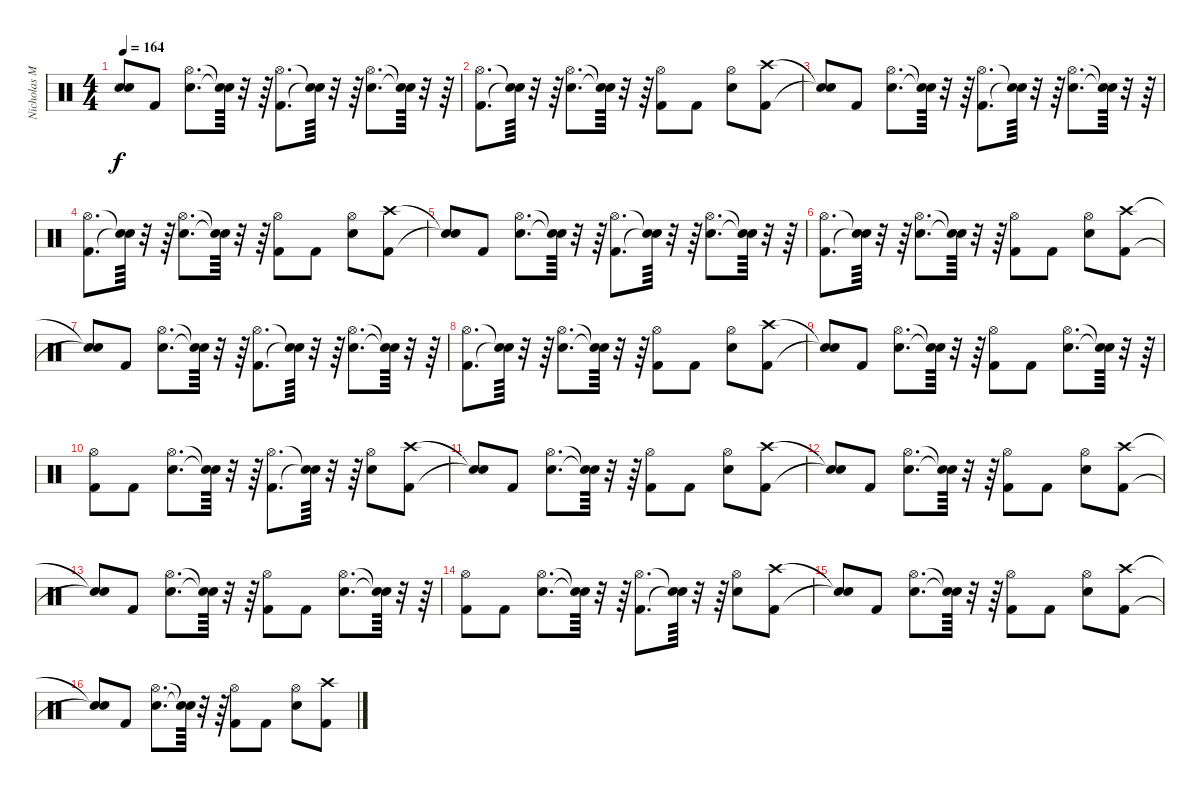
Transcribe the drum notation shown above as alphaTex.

\track ("Nicholas McBrain (Drums)" "Nicholas M") {instrument percussion}
\staff {score}
\articulation defaults
\ts (4 4)
\tempo 164
\clef neutral
\ks c
("Snare (hit)"{t} "Snare (hit)"{t}).8{dy f} "Kick (hit) 2".8 ("Snare (hit) 2" "Hi-Hat (open)").8{d} ("Snare (hit)"{t} "Snare (hit)"{t}).64 r.32 r.64 ("Kick (hit) 2" "Hi-Hat (open)").8{d} ("Snare (hit)"{t} "Snare (hit)"{t}).64 r.32 r.64 ("Snare (hit) 2" "Hi-Hat (open)").8{d} ("Snare (hit)"{t} "Snare (hit)"{t}).64 r.32 r.64 |
("Kick (hit) 2" "Hi-Hat (open)").8{d} ("Snare (hit)"{t} "Snare (hit)"{t}).64 r.32 r.64 ("Snare (hit) 2" "Hi-Hat (open)").8{d} ("Snare (hit)"{t} "Snare (hit)"{t}).64 r.32 r.64 ("Kick (hit) 2" "Hi-Hat (open)").8 "Kick (hit) 2".8 ("Snare (hit) 2" "Hi-Hat (open)").8 ("Kick (hit) 2" "Crash high (hit)").8 |
("Snare (hit)"{t} "Snare (hit)"{t}).8 "Kick (hit) 2".8 ("Snare (hit) 2" "Hi-Hat (open)").8{d} ("Snare (hit)"{t} "Snare (hit)"{t}).64 r.32 r.64 ("Kick (hit) 2" "Hi-Hat (open)").8{d} ("Snare (hit)"{t} "Snare (hit)"{t}).64 r.32 r.64 ("Snare (hit) 2" "Hi-Hat (open)").8{d} ("Snare (hit)"{t} "Snare (hit)"{t}).64 r.32 r.64 |
("Kick (hit) 2" "Hi-Hat (open)").8{d} ("Snare (hit)"{t} "Snare (hit)"{t}).64 r.32 r.64 ("Snare (hit) 2" "Hi-Hat (open)").8{d} ("Snare (hit)"{t} "Snare (hit)"{t}).64 r.32 r.64 ("Kick (hit) 2" "Hi-Hat (open)").8 "Kick (hit) 2".8 ("Snare (hit) 2" "Hi-Hat (open)").8 ("Kick (hit) 2" "Crash high (hit)").8 |
("Snare (hit)"{t} "Snare (hit)"{t}).8 "Kick (hit) 2".8 ("Snare (hit) 2" "Hi-Hat (open)").8{d} ("Snare (hit)"{t} "Snare (hit)"{t}).64 r.32 r.64 ("Kick (hit) 2" "Hi-Hat (open)").8{d} ("Snare (hit)"{t} "Snare (hit)"{t}).64 r.32 r.64 ("Snare (hit) 2" "Hi-Hat (open)").8{d} ("Snare (hit)"{t} "Snare (hit)"{t}).64 r.32 r.64 |
("Kick (hit) 2" "Hi-Hat (open)").8{d} ("Snare (hit)"{t} "Snare (hit)"{t}).64 r.32 r.64 ("Snare (hit) 2" "Hi-Hat (open)").8{d} ("Snare (hit)"{t} "Snare (hit)"{t}).64 r.32 r.64 ("Kick (hit) 2" "Hi-Hat (open)").8 "Kick (hit) 2".8 ("Snare (hit) 2" "Hi-Hat (open)").8 ("Kick (hit) 2" "Crash high (hit)").8 |
("Snare (hit)"{t} "Snare (hit)"{t}).8 "Kick (hit) 2".8 ("Snare (hit) 2" "Hi-Hat (open)").8{d} ("Snare (hit)"{t} "Snare (hit)"{t}).64 r.32 r.64 ("Kick (hit) 2" "Hi-Hat (open)").8{d} ("Snare (hit)"{t} "Snare (hit)"{t}).64 r.32 r.64 ("Snare (hit) 2" "Hi-Hat (open)").8{d} ("Snare (hit)"{t} "Snare (hit)"{t}).64 r.32 r.64 |
("Kick (hit) 2" "Hi-Hat (open)").8{d} ("Snare (hit)"{t} "Snare (hit)"{t}).64 r.32 r.64 ("Snare (hit) 2" "Hi-Hat (open)").8{d} ("Snare (hit)"{t} "Snare (hit)"{t}).64 r.32 r.64 ("Kick (hit) 2" "Hi-Hat (open)").8 "Kick (hit) 2".8 ("Snare (hit) 2" "Hi-Hat (open)").8 ("Kick (hit) 2" "Crash high (hit)").8 |
("Snare (hit)"{t} "Snare (hit)"{t}).8 "Kick (hit) 2".8 ("Snare (hit) 2" "Hi-Hat (open)").8{d} ("Snare (hit)"{t} "Snare (hit)"{t}).64 r.32 r.64 ("Kick (hit) 2" "Hi-Hat (open)").8 "Kick (hit) 2".8 ("Snare (hit) 2" "Hi-Hat (open)").8{d} ("Snare (hit)"{t} "Snare (hit)"{t}).64 r.32 r.64 |
("Kick (hit) 2" "Hi-Hat (open)").8 "Kick (hit) 2".8 ("Snare (hit) 2" "Hi-Hat (open)").8{d} ("Snare (hit)"{t} "Snare (hit)"{t}).64 r.32 r.64 ("Kick (hit) 2" "Hi-Hat (open)").8{d} ("Snare (hit)"{t} "Snare (hit)"{t}).64 r.32 r.64 ("Snare (hit) 2" "Hi-Hat (open)").8 ("Kick (hit) 2" "Crash high (hit)").8 |
("Snare (hit)"{t} "Snare (hit)"{t}).8 "Kick (hit) 2".8 ("Snare (hit) 2" "Hi-Hat (open)").8{d} ("Snare (hit)"{t} "Snare (hit)"{t}).64 r.32 r.64 ("Kick (hit) 2" "Hi-Hat (open)").8 "Kick (hit) 2".8 ("Snare (hit) 2" "Hi-Hat (open)").8 ("Kick (hit) 2" "Crash high (hit)").8 |
("Snare (hit)"{t} "Snare (hit)"{t}).8 "Kick (hit) 2".8 ("Snare (hit) 2" "Hi-Hat (open)").8{d} ("Snare (hit)"{t} "Snare (hit)"{t}).64 r.32 r.64 ("Kick (hit) 2" "Hi-Hat (open)").8 "Kick (hit) 2".8 ("Snare (hit) 2" "Hi-Hat (open)").8 ("Kick (hit) 2" "Crash high (hit)").8 |
("Snare (hit)"{t} "Snare (hit)"{t}).8 "Kick (hit) 2".8 ("Snare (hit) 2" "Hi-Hat (open)").8{d} ("Snare (hit)"{t} "Snare (hit)"{t}).64 r.32 r.64 ("Kick (hit) 2" "Hi-Hat (open)").8 "Kick (hit) 2".8 ("Snare (hit) 2" "Hi-Hat (open)").8{d} ("Snare (hit)"{t} "Snare (hit)"{t}).64 r.32 r.64 |
("Kick (hit) 2" "Hi-Hat (open)").8 "Kick (hit) 2".8 ("Snare (hit) 2" "Hi-Hat (open)").8{d} ("Snare (hit)"{t} "Snare (hit)"{t}).64 r.32 r.64 ("Kick (hit) 2" "Hi-Hat (open)").8{d} ("Snare (hit)"{t} "Snare (hit)"{t}).64 r.32 r.64 ("Snare (hit) 2" "Hi-Hat (open)").8 ("Kick (hit) 2" "Crash high (hit)").8 |
("Snare (hit)"{t} "Snare (hit)"{t}).8 "Kick (hit) 2".8 ("Snare (hit) 2" "Hi-Hat (open)").8{d} ("Snare (hit)"{t} "Snare (hit)"{t}).64 r.32 r.64 ("Kick (hit) 2" "Hi-Hat (open)").8 "Kick (hit) 2".8 ("Snare (hit) 2" "Hi-Hat (open)").8 ("Kick (hit) 2" "Crash high (hit)").8 |
("Snare (hit)"{t} "Snare (hit)"{t}).8 "Kick (hit) 2".8 ("Snare (hit) 2" "Hi-Hat (open)").8{d} ("Snare (hit)"{t} "Snare (hit)"{t}).64 r.32 r.64 ("Kick (hit) 2" "Hi-Hat (open)").8 "Kick (hit) 2".8 ("Snare (hit) 2" "Hi-Hat (open)").8 ("Kick (hit) 2" "Crash high (hit)").8
